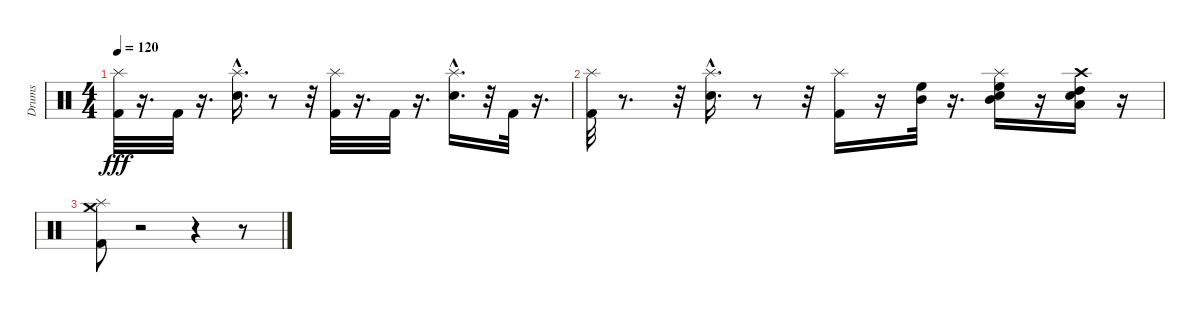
\track ("Drums" "Drums") {instrument percussion}
\staff {score}
\articulation defaults
\ts (4 4)
\tempo 120
\clef neutral
\ks c
("Kick (hit) 2" "Splash (hit)").32{dy fff} r.16{d} "Kick (hit) 2".32 r.16{d} ("Electric Snare (hit)"{hac} "Splash (hit)").16{d} r.8 r.32 ("Kick (hit) 2" "Splash (hit)").32 r.16{d} "Kick (hit) 2".32 r.16{d} ("Electric Snare (hit)"{hac} "Splash (hit)").16{d} r.32 "Kick (hit) 2".32 r.16{d} |
("Kick (hit) 2" "Splash (hit)").32 r.8{d} r.32 ("Electric Snare (hit)"{hac} "Splash (hit)").16{d} r.8 r.32 ("Kick (hit) 2" "Splash (hit)").16 r.16 ("Mid Tom (hit)" "High Floor Tom (hit)").32 r.16{d} ("Mid Tom (hit)" "High Floor Tom (hit)" "Electric Snare (hit)" "Splash (hit)").16 r.16 ("Low Tom (hit)" "High Tom (hit)" "Electric Snare (hit)" "Crash high (hit)").16 r.16 |
("Splash (hit)" "Crash medium (hit)" "Kick (hit) 2").8 r.2 r.4 r.8
